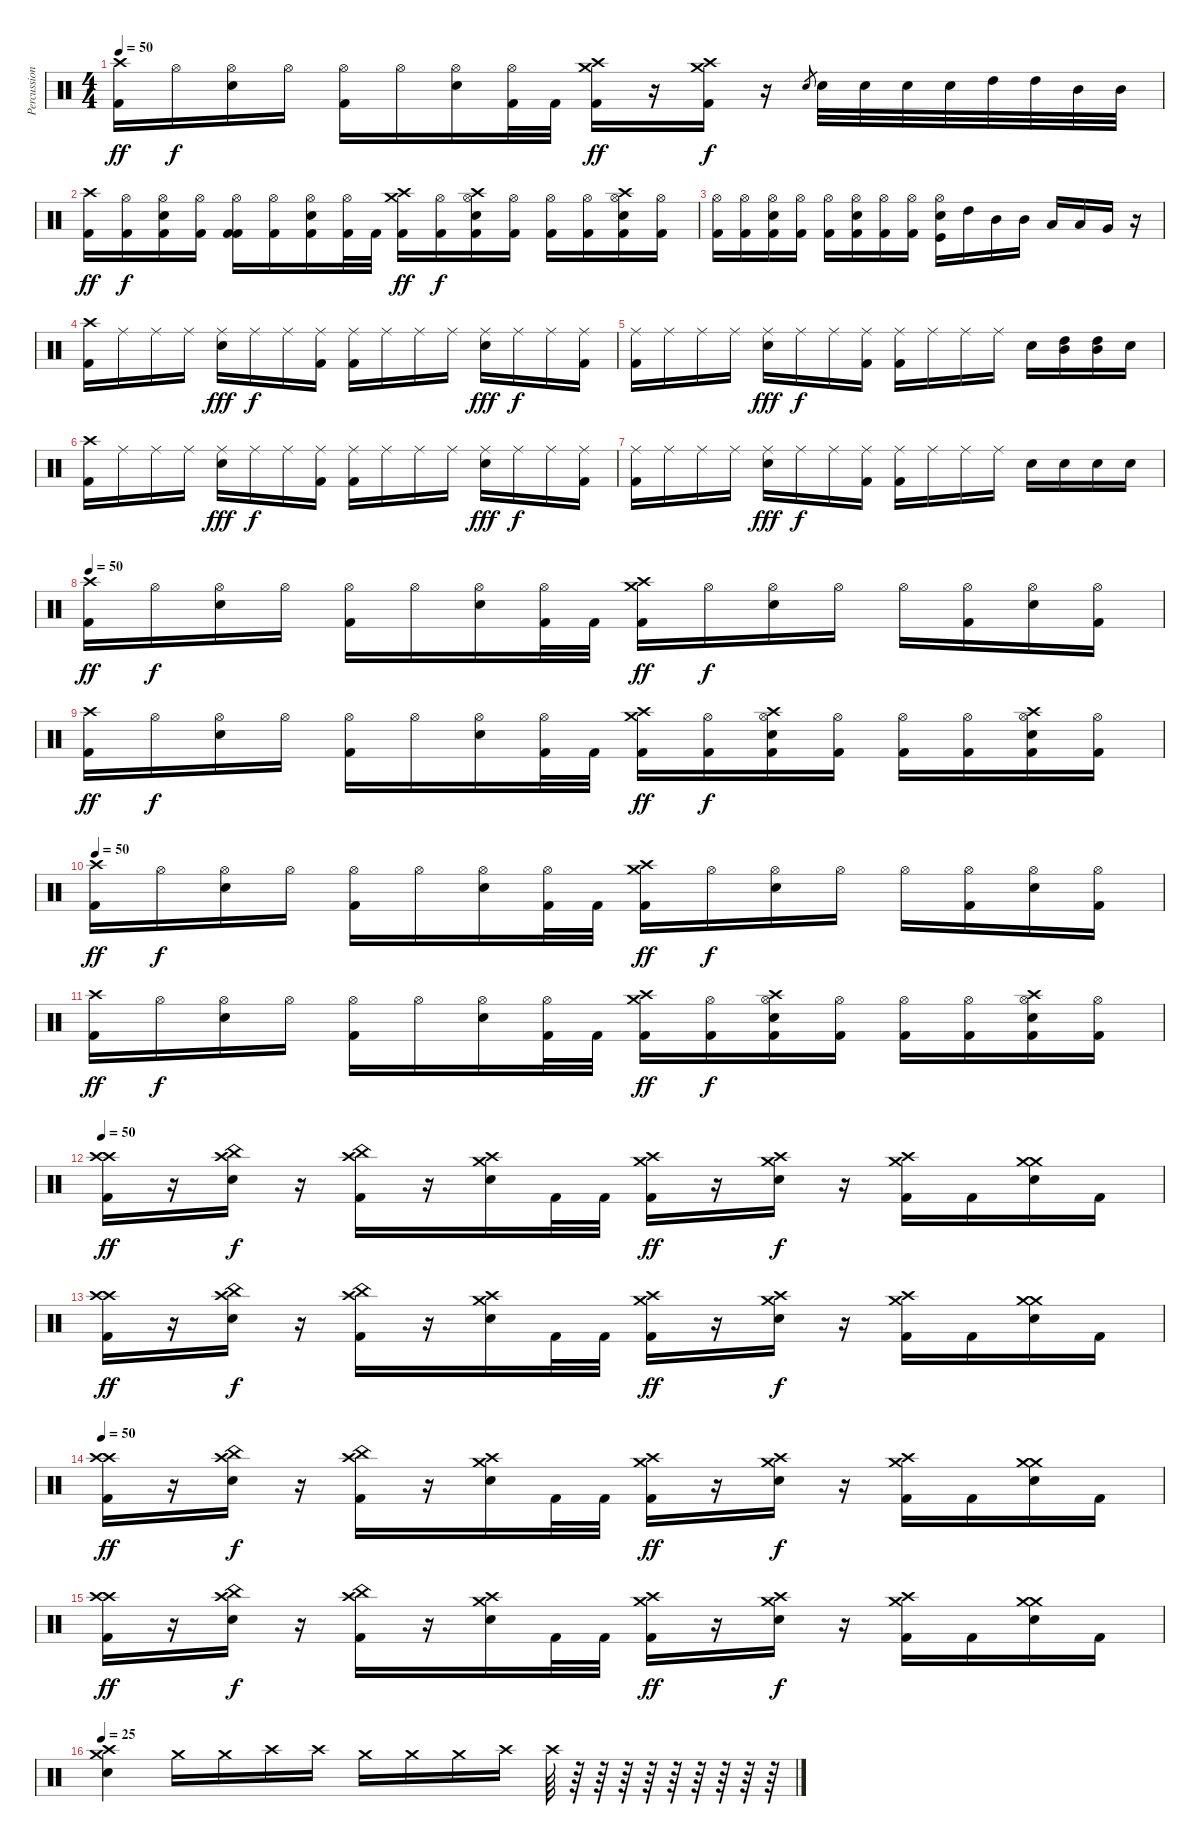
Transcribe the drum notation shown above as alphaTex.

\track ("Percussions" "Percussion") {instrument percussion}
\staff {score}
\articulation defaults
\ts (4 4)
\tempo 50
\clef neutral
\ks c
("Kick (hit) 2" "Crash high (hit)").16{dy ff} "Hi-Hat (open)".16{dy f} ("Snare (hit) 2" "Hi-Hat (open)").16 "Hi-Hat (open)".16 ("Kick (hit) 2" "Hi-Hat (open)").16 "Hi-Hat (open)".16 ("Snare (hit) 2" "Hi-Hat (open)").16 ("Kick (hit) 2" "Hi-Hat (open)").32 "Kick (hit) 2".32 ("Crash medium (hit)" "Kick (hit) 2" "Crash high (hit)").16{dy ff} r.16 ("Kick (hit) 2" "Crash high (hit)" "Crash medium (hit)").16{dy f} r.16 "Snare (hit) 2".8{gr} "Snare (hit) 2".32 "Snare (hit) 2".32 "Snare (hit) 2".32 "Snare (hit) 2".32 "High Tom (hit)".32 "High Tom (hit)".32 "Mid Tom (hit)".32 "Mid Tom (hit)".32 |
("Kick (hit) 2" "Crash high (hit)").16{dy ff} ("Kick (hit) 2" "Hi-Hat (open)").16{dy f} ("Kick (hit) 2" "Snare (hit) 2" "Hi-Hat (open)").16 ("Kick (hit) 2" "Hi-Hat (open)").16 ("Kick (hit) 2" "Kick (hit) 2" "Hi-Hat (open)").16 ("Kick (hit) 2" "Hi-Hat (open)").16 ("Kick (hit) 2" "Snare (hit) 2" "Hi-Hat (open)").16 ("Kick (hit) 2" "Hi-Hat (open)").32 "Kick (hit) 2".32 ("Crash medium (hit)" "Kick (hit) 2" "Crash high (hit)").16{dy ff} ("Kick (hit) 2" "Hi-Hat (open)").16{dy f} ("Crash high (hit)" "Kick (hit) 2" "Snare (hit) 2" "Hi-Hat (open)").16 ("Kick (hit) 2" "Hi-Hat (open)").16 ("Kick (hit) 2" "Hi-Hat (open)").16 ("Kick (hit) 2" "Hi-Hat (open)").16 ("Crash high (hit)" "Kick (hit) 2" "Snare (hit) 2" "Hi-Hat (open)").16 ("Kick (hit) 2" "Hi-Hat (open)").16 |
("Kick (hit) 2" "Hi-Hat (open)").16 ("Kick (hit) 2" "Hi-Hat (open)").16 ("Kick (hit) 2" "Snare (hit) 2" "Hi-Hat (open)").16 ("Kick (hit) 2" "Hi-Hat (open)").16 ("Kick (hit) 2" "Hi-Hat (open)").16 ("Kick (hit) 2" "Snare (hit) 2" "Hi-Hat (open)").16 ("Kick (hit) 2" "Hi-Hat (open)").16 ("Kick (hit) 2" "Hi-Hat (open)").16 ("Kick (hit)" "Snare (hit) 2" "Hi-Hat (open)").16 "High Tom (hit)".16 "Mid Tom (hit)".16 "Mid Tom (hit)".16 "Low Tom (hit)".16 "Low Tom (hit)".16 "Very Low Tom (hit)".16 r.16 |
("Kick (hit) 2" "Crash high (hit)").16 "Ride (middle)".16 "Ride (middle)".16 "Ride (middle)".16 ("Snare (hit) 2" "Ride (middle)").16{dy fff} "Ride (middle)".16{dy f} "Ride (middle)".16 ("Kick (hit) 2" "Ride (middle)").16 ("Kick (hit) 2" "Ride (middle)").16 "Ride (middle)".16 "Ride (middle)".16 "Ride (middle)".16 ("Electric Snare (hit)" "Ride (middle)").16{dy fff} "Ride (middle)".16{dy f} "Ride (middle)".16 ("Kick (hit) 2" "Ride (middle)").16 |
("Kick (hit) 2" "Ride (middle)").16 "Ride (middle)".16 "Ride (middle)".16 "Ride (middle)".16 ("Electric Snare (hit)" "Ride (middle)").16{dy fff} "Ride (middle)".16{dy f} "Ride (middle)".16 ("Kick (hit) 2" "Ride (middle)").16 ("Kick (hit) 2" "Ride (middle)").16 "Ride (middle)".16 "Ride (middle)".16 "Ride (middle)".16 "Electric Snare (hit)".16 ("High Tom (hit)" "Mid Tom (hit)").16 ("High Tom (hit)" "Mid Tom (hit)").16 "Electric Snare (hit)".16 |
("Kick (hit) 2" "Crash high (hit)").16 "Ride (middle)".16 "Ride (middle)".16 "Ride (middle)".16 ("Electric Snare (hit)" "Ride (middle)").16{dy fff} "Ride (middle)".16{dy f} "Ride (middle)".16 ("Kick (hit) 2" "Ride (middle)").16 ("Kick (hit) 2" "Ride (middle)").16 "Ride (middle)".16 "Ride (middle)".16 "Ride (middle)".16 ("Electric Snare (hit)" "Ride (middle)").16{dy fff} "Ride (middle)".16{dy f} "Ride (middle)".16 ("Kick (hit) 2" "Ride (middle)").16 |
("Kick (hit) 2" "Ride (middle)").16 "Ride (middle)".16 "Ride (middle)".16 "Ride (middle)".16 ("Electric Snare (hit)" "Ride (middle)").16{dy fff} "Ride (middle)".16{dy f} "Ride (middle)".16 ("Kick (hit) 2" "Ride (middle)").16 ("Kick (hit) 2" "Ride (middle)").16 "Ride (middle)".16 "Ride (middle)".16 "Ride (middle)".16 "Electric Snare (hit)".16 "Electric Snare (hit)".16 "Electric Snare (hit)".16 "Electric Snare (hit)".16 |
\tempo 50
("Kick (hit) 2" "Crash high (hit)").16{dy ff} "Hi-Hat (open)".16{dy f} ("Snare (hit) 2" "Hi-Hat (open)").16 "Hi-Hat (open)".16 ("Kick (hit) 2" "Hi-Hat (open)").16 "Hi-Hat (open)".16 ("Snare (hit) 2" "Hi-Hat (open)").16 ("Kick (hit) 2" "Hi-Hat (open)").32 "Kick (hit) 2".32 ("Crash medium (hit)" "Kick (hit) 2" "Crash high (hit)").16{dy ff} "Hi-Hat (open)".16{dy f} ("Snare (hit) 2" "Hi-Hat (open)").16 "Hi-Hat (open)".16 "Hi-Hat (open)".16 ("Kick (hit) 2" "Hi-Hat (open)").16 ("Snare (hit) 2" "Hi-Hat (open)").16 ("Kick (hit) 2" "Hi-Hat (open)").16 |
("Kick (hit) 2" "Crash high (hit)").16{dy ff} "Hi-Hat (open)".16{dy f} ("Snare (hit) 2" "Hi-Hat (open)").16 "Hi-Hat (open)".16 ("Kick (hit) 2" "Hi-Hat (open)").16 "Hi-Hat (open)".16 ("Snare (hit) 2" "Hi-Hat (open)").16 ("Kick (hit) 2" "Hi-Hat (open)").32 "Kick (hit) 2".32 ("Crash medium (hit)" "Kick (hit) 2" "Crash high (hit)").16{dy ff} ("Kick (hit) 2" "Hi-Hat (open)").16{dy f} ("Crash high (hit)" "Kick (hit) 2" "Snare (hit) 2" "Hi-Hat (open)").16 ("Kick (hit) 2" "Hi-Hat (open)").16 ("Kick (hit) 2" "Hi-Hat (open)").16 ("Kick (hit) 2" "Hi-Hat (open)").16 ("Crash high (hit)" "Kick (hit) 2" "Snare (hit) 2" "Hi-Hat (open)").16 ("Kick (hit) 2" "Hi-Hat (open)").16 |
\tempo 50
("Kick (hit) 2" "Crash high (hit)").16{dy ff} "Hi-Hat (open)".16{dy f} ("Snare (hit) 2" "Hi-Hat (open)").16 "Hi-Hat (open)".16 ("Kick (hit) 2" "Hi-Hat (open)").16 "Hi-Hat (open)".16 ("Snare (hit) 2" "Hi-Hat (open)").16 ("Kick (hit) 2" "Hi-Hat (open)").32 "Kick (hit) 2".32 ("Crash medium (hit)" "Kick (hit) 2" "Crash high (hit)").16{dy ff} "Hi-Hat (open)".16{dy f} ("Snare (hit) 2" "Hi-Hat (open)").16 "Hi-Hat (open)".16 "Hi-Hat (open)".16 ("Kick (hit) 2" "Hi-Hat (open)").16 ("Snare (hit) 2" "Hi-Hat (open)").16 ("Kick (hit) 2" "Hi-Hat (open)").16 |
("Kick (hit) 2" "Crash high (hit)").16{dy ff} "Hi-Hat (open)".16{dy f} ("Snare (hit) 2" "Hi-Hat (open)").16 "Hi-Hat (open)".16 ("Kick (hit) 2" "Hi-Hat (open)").16 "Hi-Hat (open)".16 ("Snare (hit) 2" "Hi-Hat (open)").16 ("Kick (hit) 2" "Hi-Hat (open)").32 "Kick (hit) 2".32 ("Crash medium (hit)" "Kick (hit) 2" "Crash high (hit)").16{dy ff} ("Kick (hit) 2" "Hi-Hat (open)").16{dy f} ("Crash high (hit)" "Kick (hit) 2" "Snare (hit) 2" "Hi-Hat (open)").16 ("Kick (hit) 2" "Hi-Hat (open)").16 ("Kick (hit) 2" "Hi-Hat (open)").16 ("Kick (hit) 2" "Hi-Hat (open)").16 ("Crash high (hit)" "Kick (hit) 2" "Snare (hit) 2" "Hi-Hat (open)").16 ("Kick (hit) 2" "Hi-Hat (open)").16 |
\tempo 50
("Crash high (hit)" "Kick (hit) 2" "Crash high (hit)").16{dy ff} r.16 ("China (hit)" "Snare (hit) 2" "Crash high (hit)").16{dy f} r.16 ("Crash high (hit)" "Kick (hit) 2" "China (hit)").16 r.16 ("Crash medium (hit)" "Snare (hit) 2" "Crash high (hit)").16 "Kick (hit) 2".32 "Kick (hit) 2".32 ("Crash medium (hit)" "Kick (hit) 2" "Crash high (hit)").16{dy ff} r.16 ("Crash medium (hit)" "Snare (hit) 2" "Crash high (hit)").16{dy f} r.16 ("Crash high (hit)" "Kick (hit) 2" "Crash medium (hit)").16 "Kick (hit) 2".16 ("Crash medium (hit)" "Snare (hit) 2" "Crash medium (hit)").16 "Kick (hit) 2".16 |
("Crash high (hit)" "Kick (hit) 2" "Crash high (hit)").16{dy ff} r.16 ("China (hit)" "Snare (hit) 2" "Crash high (hit)").16{dy f} r.16 ("Crash high (hit)" "Kick (hit) 2" "China (hit)").16 r.16 ("Crash medium (hit)" "Snare (hit) 2" "Crash high (hit)").16 "Kick (hit) 2".32 "Kick (hit) 2".32 ("Crash medium (hit)" "Kick (hit) 2" "Crash high (hit)").16{dy ff} r.16 ("Crash medium (hit)" "Snare (hit) 2" "Crash high (hit)").16{dy f} r.16 ("Crash high (hit)" "Kick (hit) 2" "Crash medium (hit)").16 "Kick (hit) 2".16 ("Crash medium (hit)" "Snare (hit) 2" "Crash medium (hit)").16 "Kick (hit) 2".16 |
\tempo 50
("Crash high (hit)" "Kick (hit) 2" "Crash high (hit)").16{dy ff} r.16 ("China (hit)" "Snare (hit) 2" "Crash high (hit)").16{dy f} r.16 ("Crash high (hit)" "Kick (hit) 2" "China (hit)").16 r.16 ("Crash medium (hit)" "Snare (hit) 2" "Crash high (hit)").16 "Kick (hit) 2".32 "Kick (hit) 2".32 ("Crash medium (hit)" "Kick (hit) 2" "Crash high (hit)").16{dy ff} r.16 ("Crash medium (hit)" "Snare (hit) 2" "Crash high (hit)").16{dy f} r.16 ("Crash high (hit)" "Kick (hit) 2" "Crash medium (hit)").16 "Kick (hit) 2".16 ("Crash medium (hit)" "Snare (hit) 2" "Crash medium (hit)").16 "Kick (hit) 2".16 |
("Crash high (hit)" "Kick (hit) 2" "Crash high (hit)").16{dy ff} r.16 ("China (hit)" "Snare (hit) 2" "Crash high (hit)").16{dy f} r.16 ("Crash high (hit)" "Kick (hit) 2" "China (hit)").16 r.16 ("Crash medium (hit)" "Snare (hit) 2" "Crash high (hit)").16 "Kick (hit) 2".32 "Kick (hit) 2".32 ("Crash medium (hit)" "Kick (hit) 2" "Crash high (hit)").16{dy ff} r.16 ("Crash medium (hit)" "Snare (hit) 2" "Crash high (hit)").16{dy f} r.16 ("Crash high (hit)" "Kick (hit) 2" "Crash medium (hit)").16 "Kick (hit) 2".16 ("Crash medium (hit)" "Snare (hit) 2" "Crash medium (hit)").16 "Kick (hit) 2".16 |
\tempo 10
\tempo 25
("Snare (hit) 2" "Crash high (hit)" "Crash medium (hit)").4 "Crash medium (hit)".16 "Crash medium (hit)".16 "Crash high (hit)".16 "Crash high (hit)".16 "Crash medium (hit)".16 "Crash medium (hit)".16 "Crash medium (hit)".16 "Crash high (hit)".16 "Crash high (hit)".64 r.64 r.64 r.64 r.64 r.64 r.64 r.64 r.64 r.64
